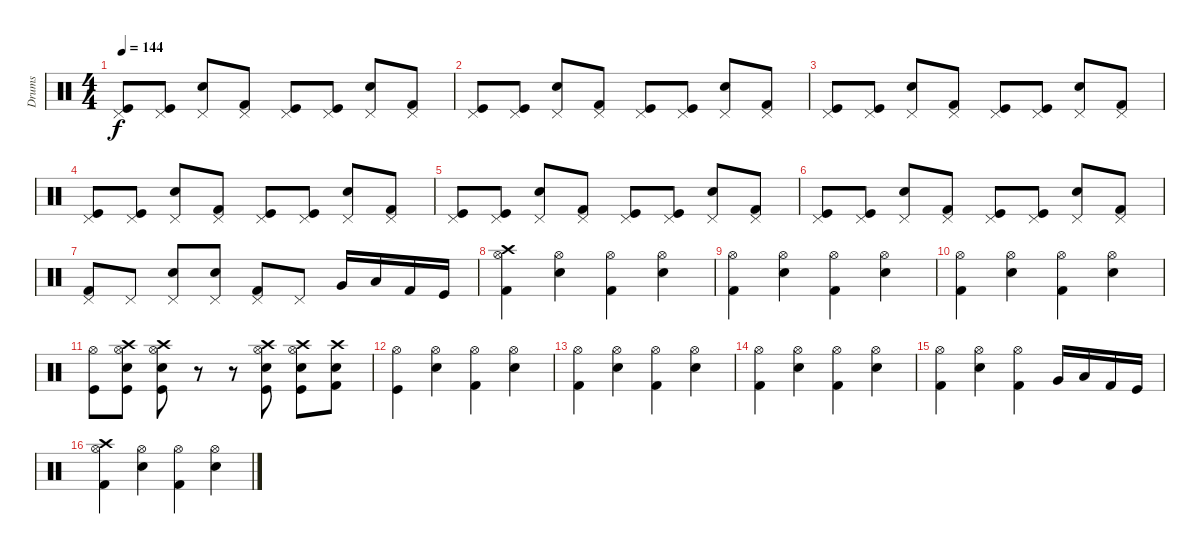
\track ("Drums" "Drums") {instrument percussion}
\staff {score}
\articulation defaults
\ts (4 4)
\tempo 144
\clef neutral
\ks c
("Pedal Hi-Hat (hit)" "Kick (hit)").8{dy f} ("Pedal Hi-Hat (hit)" "Kick (hit)").8 ("Pedal Hi-Hat (hit)" "Snare (hit) 2").8 ("Pedal Hi-Hat (hit)" "Kick (hit) 2").8 ("Pedal Hi-Hat (hit)" "Kick (hit)").8 ("Pedal Hi-Hat (hit)" "Kick (hit)").8 ("Pedal Hi-Hat (hit)" "Snare (hit) 2").8 ("Pedal Hi-Hat (hit)" "Kick (hit) 2").8 |
("Pedal Hi-Hat (hit)" "Kick (hit)").8 ("Pedal Hi-Hat (hit)" "Kick (hit)").8 ("Pedal Hi-Hat (hit)" "Snare (hit) 2").8 ("Pedal Hi-Hat (hit)" "Kick (hit) 2").8 ("Pedal Hi-Hat (hit)" "Kick (hit)").8 ("Pedal Hi-Hat (hit)" "Kick (hit)").8 ("Pedal Hi-Hat (hit)" "Snare (hit) 2").8 ("Pedal Hi-Hat (hit)" "Kick (hit) 2").8 |
("Pedal Hi-Hat (hit)" "Kick (hit)").8 ("Pedal Hi-Hat (hit)" "Kick (hit)").8 ("Pedal Hi-Hat (hit)" "Snare (hit) 2").8 ("Pedal Hi-Hat (hit)" "Kick (hit) 2").8 ("Pedal Hi-Hat (hit)" "Kick (hit)").8 ("Pedal Hi-Hat (hit)" "Kick (hit)").8 ("Pedal Hi-Hat (hit)" "Snare (hit) 2").8 ("Pedal Hi-Hat (hit)" "Kick (hit) 2").8 |
("Pedal Hi-Hat (hit)" "Kick (hit)").8 ("Pedal Hi-Hat (hit)" "Kick (hit)").8 ("Pedal Hi-Hat (hit)" "Snare (hit) 2").8 ("Pedal Hi-Hat (hit)" "Kick (hit) 2").8 ("Pedal Hi-Hat (hit)" "Kick (hit)").8 ("Pedal Hi-Hat (hit)" "Kick (hit)").8 ("Pedal Hi-Hat (hit)" "Snare (hit) 2").8 ("Pedal Hi-Hat (hit)" "Kick (hit) 2").8 |
("Pedal Hi-Hat (hit)" "Kick (hit)").8 ("Pedal Hi-Hat (hit)" "Kick (hit)").8 ("Pedal Hi-Hat (hit)" "Snare (hit) 2").8 ("Pedal Hi-Hat (hit)" "Kick (hit) 2").8 ("Pedal Hi-Hat (hit)" "Kick (hit)").8 ("Pedal Hi-Hat (hit)" "Kick (hit)").8 ("Pedal Hi-Hat (hit)" "Snare (hit) 2").8 ("Pedal Hi-Hat (hit)" "Kick (hit) 2").8 |
("Pedal Hi-Hat (hit)" "Kick (hit)").8 ("Pedal Hi-Hat (hit)" "Kick (hit)").8 ("Pedal Hi-Hat (hit)" "Snare (hit) 2").8 ("Pedal Hi-Hat (hit)" "Kick (hit) 2").8 ("Pedal Hi-Hat (hit)" "Kick (hit)").8 ("Pedal Hi-Hat (hit)" "Kick (hit)").8 ("Pedal Hi-Hat (hit)" "Snare (hit) 2").8 ("Pedal Hi-Hat (hit)" "Kick (hit) 2").8 |
("Pedal Hi-Hat (hit)" "Kick (hit) 2").8 "Pedal Hi-Hat (hit)".8 ("Pedal Hi-Hat (hit)" "Snare (hit) 2").8 ("Pedal Hi-Hat (hit)" "Snare (hit) 2").8 ("Pedal Hi-Hat (hit)" "Kick (hit) 2").8 "Pedal Hi-Hat (hit)".8 "Very Low Tom (hit)".16 "Low Floor Tom (hit)".16 "Kick (hit) 2".16 "Kick (hit)".16 |
("Hi-Hat (open)" "Kick (hit) 2" "Crash high (hit)").4 ("Hi-Hat (open)" "Snare (hit) 2").4 ("Hi-Hat (open)" "Kick (hit) 2").4 ("Hi-Hat (open)" "Snare (hit) 2").4 |
("Hi-Hat (open)" "Kick (hit) 2").4 ("Hi-Hat (open)" "Snare (hit) 2").4 ("Hi-Hat (open)" "Kick (hit) 2").4 ("Hi-Hat (open)" "Snare (hit) 2").4 |
("Hi-Hat (open)" "Kick (hit) 2").4 ("Hi-Hat (open)" "Snare (hit) 2").4 ("Hi-Hat (open)" "Kick (hit) 2").4 ("Hi-Hat (open)" "Snare (hit) 2").4 |
("Hi-Hat (open)" "Kick (hit)").8 ("Crash high (hit)" "Kick (hit)" "Snare (hit) 2" "Hi-Hat (open)").8 ("Crash high (hit)" "Kick (hit)" "Snare (hit) 2" "Hi-Hat (open)").8 r.8 r.8 ("Crash high (hit)" "Snare (hit) 2" "Kick (hit)" "Hi-Hat (open)").8 ("Crash high (hit)" "Snare (hit) 2" "Kick (hit)" "Hi-Hat (open)").8 ("Crash high (hit)" "Kick (hit) 2" "Snare (hit) 2").8 |
("Hi-Hat (open)" "Kick (hit)").4 ("Hi-Hat (open)" "Snare (hit) 2").4 ("Hi-Hat (open)" "Kick (hit) 2").4 ("Hi-Hat (open)" "Snare (hit) 2").4 |
("Hi-Hat (open)" "Kick (hit) 2").4 ("Hi-Hat (open)" "Snare (hit) 2").4 ("Hi-Hat (open)" "Kick (hit) 2").4 ("Hi-Hat (open)" "Snare (hit) 2").4 |
("Hi-Hat (open)" "Kick (hit) 2").4 ("Hi-Hat (open)" "Snare (hit) 2").4 ("Hi-Hat (open)" "Kick (hit) 2").4 ("Hi-Hat (open)" "Snare (hit) 2").4 |
("Hi-Hat (open)" "Kick (hit) 2").4 ("Hi-Hat (open)" "Snare (hit) 2").4 ("Hi-Hat (open)" "Kick (hit) 2").4 "Very Low Tom (hit)".16 "Low Floor Tom (hit)".16 "Kick (hit) 2".16 "Kick (hit)".16 |
("Hi-Hat (open)" "Kick (hit) 2" "Crash high (hit)").4 ("Hi-Hat (open)" "Snare (hit) 2").4 ("Hi-Hat (open)" "Kick (hit) 2").4 ("Hi-Hat (open)" "Snare (hit) 2").4
